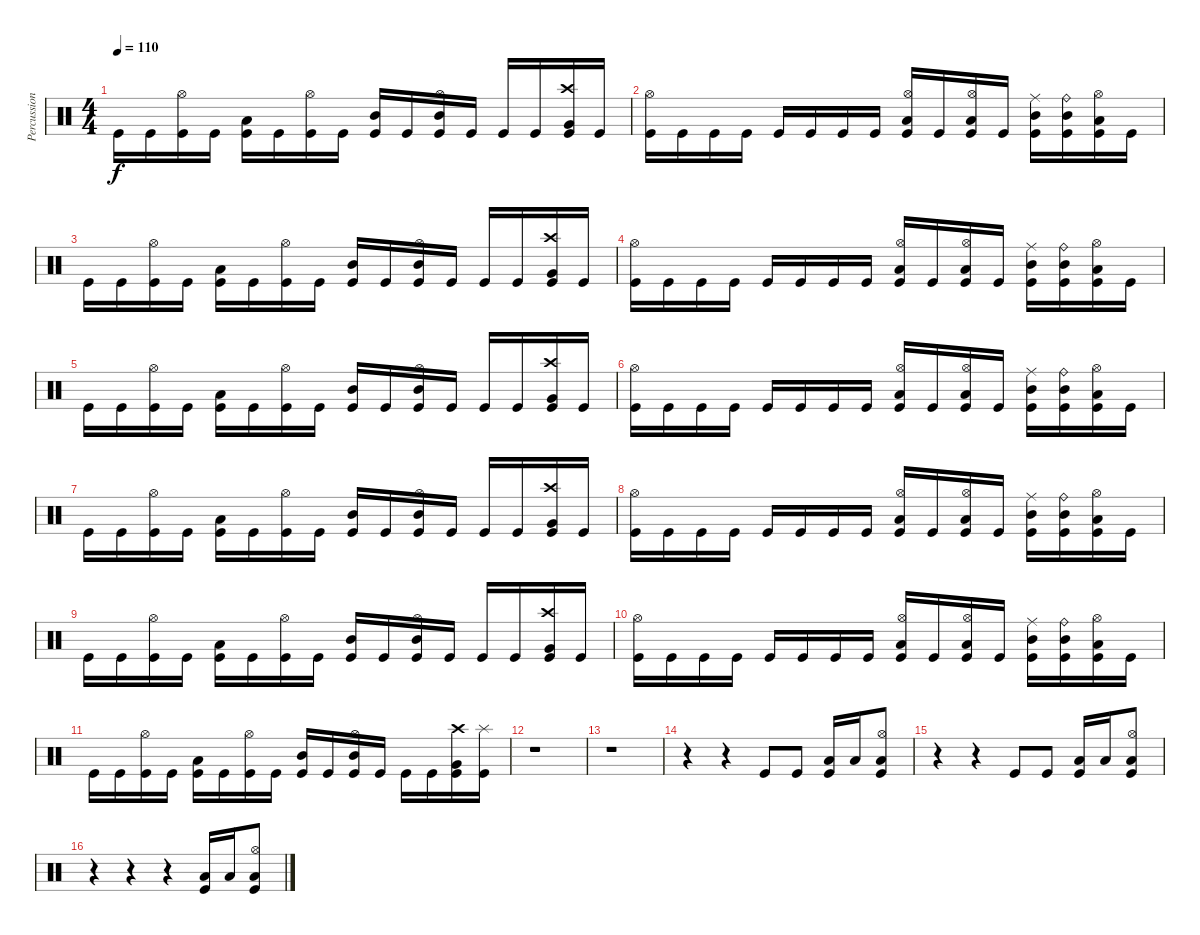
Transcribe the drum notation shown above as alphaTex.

\track ("Percussion" "Percussion") {instrument percussion}
\staff {score}
\articulation defaults
\ts (4 4)
\tempo 110
\clef neutral
\ks c "Kick (hit)".16{dy f} "Kick (hit)".16
("Hi-Hat (open)" "Kick (hit)").16 "Kick (hit)".16 ("Low Tom (hit)" "Kick (hit)").16 "Kick (hit)".16 ("Hi-Hat (open)" "Kick (hit)").16 "Kick (hit)".16 ("Mid Tom (hit)" "Kick (hit)").16 "Kick (hit)".16 ("Hi-Hat (open)" "Mid Tom (hit)" "Kick (hit)").16 "Kick (hit)".16 "Kick (hit)".16 "Kick (hit)".16 ("Crash high (hit)" "Very Low Tom (hit)" "Kick (hit)").16 "Kick (hit)".16 |
("Hi-Hat (open)" "Kick (hit)").16 "Kick (hit)".16 "Kick (hit)".16 "Kick (hit)".16 "Kick (hit)".16 "Kick (hit)".16 "Kick (hit)".16 "Kick (hit)".16 ("Hi-Hat (open)" "Low Tom (hit)" "Kick (hit)").16 "Kick (hit)".16 ("Hi-Hat (open)" "Low Tom (hit)" "Kick (hit)").16 "Kick (hit)".16 ("Ride (middle)" "Mid Tom (hit)" "Kick (hit)").16 ("Ride (bell)" "Mid Tom (hit)" "Kick (hit)").16 ("Hi-Hat (open)" "Low Tom (hit)" "Kick (hit)").16 "Kick (hit)".16 |
"Kick (hit)".16 "Kick (hit)".16 ("Hi-Hat (open)" "Kick (hit)").16 "Kick (hit)".16 ("Low Tom (hit)" "Kick (hit)").16 "Kick (hit)".16 ("Hi-Hat (open)" "Kick (hit)").16 "Kick (hit)".16 ("Mid Tom (hit)" "Kick (hit)").16 "Kick (hit)".16 ("Hi-Hat (open)" "Mid Tom (hit)" "Kick (hit)").16 "Kick (hit)".16 "Kick (hit)".16 "Kick (hit)".16 ("Crash high (hit)" "Very Low Tom (hit)" "Kick (hit)").16 "Kick (hit)".16 |
("Hi-Hat (open)" "Kick (hit)").16 "Kick (hit)".16 "Kick (hit)".16 "Kick (hit)".16 "Kick (hit)".16 "Kick (hit)".16 "Kick (hit)".16 "Kick (hit)".16 ("Hi-Hat (open)" "Low Tom (hit)" "Kick (hit)").16 "Kick (hit)".16 ("Hi-Hat (open)" "Low Tom (hit)" "Kick (hit)").16 "Kick (hit)".16 ("Ride (middle)" "Mid Tom (hit)" "Kick (hit)").16 ("Ride (bell)" "Mid Tom (hit)" "Kick (hit)").16 ("Hi-Hat (open)" "Low Tom (hit)" "Kick (hit)").16 "Kick (hit)".16 |
"Kick (hit)".16 "Kick (hit)".16 ("Hi-Hat (open)" "Kick (hit)").16 "Kick (hit)".16 ("Low Tom (hit)" "Kick (hit)").16 "Kick (hit)".16 ("Hi-Hat (open)" "Kick (hit)").16 "Kick (hit)".16 ("Mid Tom (hit)" "Kick (hit)").16 "Kick (hit)".16 ("Hi-Hat (open)" "Mid Tom (hit)" "Kick (hit)").16 "Kick (hit)".16 "Kick (hit)".16 "Kick (hit)".16 ("Crash high (hit)" "Very Low Tom (hit)" "Kick (hit)").16 "Kick (hit)".16 |
("Hi-Hat (open)" "Kick (hit)").16 "Kick (hit)".16 "Kick (hit)".16 "Kick (hit)".16 "Kick (hit)".16 "Kick (hit)".16 "Kick (hit)".16 "Kick (hit)".16 ("Hi-Hat (open)" "Low Tom (hit)" "Kick (hit)").16 "Kick (hit)".16 ("Hi-Hat (open)" "Low Tom (hit)" "Kick (hit)").16 "Kick (hit)".16 ("Ride (middle)" "Mid Tom (hit)" "Kick (hit)").16 ("Ride (bell)" "Mid Tom (hit)" "Kick (hit)").16 ("Hi-Hat (open)" "Low Tom (hit)" "Kick (hit)").16 "Kick (hit)".16 |
"Kick (hit)".16 "Kick (hit)".16 ("Hi-Hat (open)" "Kick (hit)").16 "Kick (hit)".16 ("Low Tom (hit)" "Kick (hit)").16 "Kick (hit)".16 ("Hi-Hat (open)" "Kick (hit)").16 "Kick (hit)".16 ("Mid Tom (hit)" "Kick (hit)").16 "Kick (hit)".16 ("Hi-Hat (open)" "Mid Tom (hit)" "Kick (hit)").16 "Kick (hit)".16 "Kick (hit)".16 "Kick (hit)".16 ("Crash high (hit)" "Very Low Tom (hit)" "Kick (hit)").16 "Kick (hit)".16 |
("Hi-Hat (open)" "Kick (hit)").16 "Kick (hit)".16 "Kick (hit)".16 "Kick (hit)".16 "Kick (hit)".16 "Kick (hit)".16 "Kick (hit)".16 "Kick (hit)".16 ("Hi-Hat (open)" "Low Tom (hit)" "Kick (hit)").16 "Kick (hit)".16 ("Hi-Hat (open)" "Low Tom (hit)" "Kick (hit)").16 "Kick (hit)".16 ("Ride (middle)" "Mid Tom (hit)" "Kick (hit)").16 ("Ride (bell)" "Mid Tom (hit)" "Kick (hit)").16 ("Hi-Hat (open)" "Low Tom (hit)" "Kick (hit)").16 "Kick (hit)".16 |
"Kick (hit)".16 "Kick (hit)".16 ("Hi-Hat (open)" "Kick (hit)").16 "Kick (hit)".16 ("Low Tom (hit)" "Kick (hit)").16 "Kick (hit)".16 ("Hi-Hat (open)" "Kick (hit)").16 "Kick (hit)".16 ("Mid Tom (hit)" "Kick (hit)").16 "Kick (hit)".16 ("Hi-Hat (open)" "Mid Tom (hit)" "Kick (hit)").16 "Kick (hit)".16 "Kick (hit)".16 "Kick (hit)".16 ("Crash high (hit)" "Very Low Tom (hit)" "Kick (hit)").16 "Kick (hit)".16 |
("Hi-Hat (open)" "Kick (hit)").16 "Kick (hit)".16 "Kick (hit)".16 "Kick (hit)".16 "Kick (hit)".16 "Kick (hit)".16 "Kick (hit)".16 "Kick (hit)".16 ("Hi-Hat (open)" "Low Tom (hit)" "Kick (hit)").16 "Kick (hit)".16 ("Hi-Hat (open)" "Low Tom (hit)" "Kick (hit)").16 "Kick (hit)".16 ("Ride (middle)" "Mid Tom (hit)" "Kick (hit)").16 ("Ride (bell)" "Mid Tom (hit)" "Kick (hit)").16 ("Hi-Hat (open)" "Low Tom (hit)" "Kick (hit)").16 "Kick (hit)".16 |
"Kick (hit)".16 "Kick (hit)".16 ("Hi-Hat (open)" "Kick (hit)").16 "Kick (hit)".16 ("Low Tom (hit)" "Kick (hit)").16 "Kick (hit)".16 ("Hi-Hat (open)" "Kick (hit)").16 "Kick (hit)".16 ("Mid Tom (hit)" "Kick (hit)").16 "Kick (hit)".16 ("Hi-Hat (open)" "Mid Tom (hit)" "Kick (hit)").16 "Kick (hit)".16 "Kick (hit)".16 "Kick (hit)".16 ("Crash high (hit)" "Very Low Tom (hit)" "Kick (hit)").16 ("Splash (hit)" "Kick (hit)").16 |
r.1 |
r.1 |
r.4 r.4 "Kick (hit)".8 "Kick (hit)".8 ("Low Tom (hit)" "Kick (hit)").16 "Low Tom (hit)".16 ("Hi-Hat (open)" "Low Tom (hit)" "Kick (hit)").8 |
r.4 r.4 "Kick (hit)".8 "Kick (hit)".8 ("Low Tom (hit)" "Kick (hit)").16 "Low Tom (hit)".16 ("Hi-Hat (open)" "Low Tom (hit)" "Kick (hit)").8 |
r.4 r.4 r.4 ("Low Tom (hit)" "Kick (hit)").16 "Low Tom (hit)".16 ("Hi-Hat (open)" "Low Tom (hit)" "Kick (hit)").8
